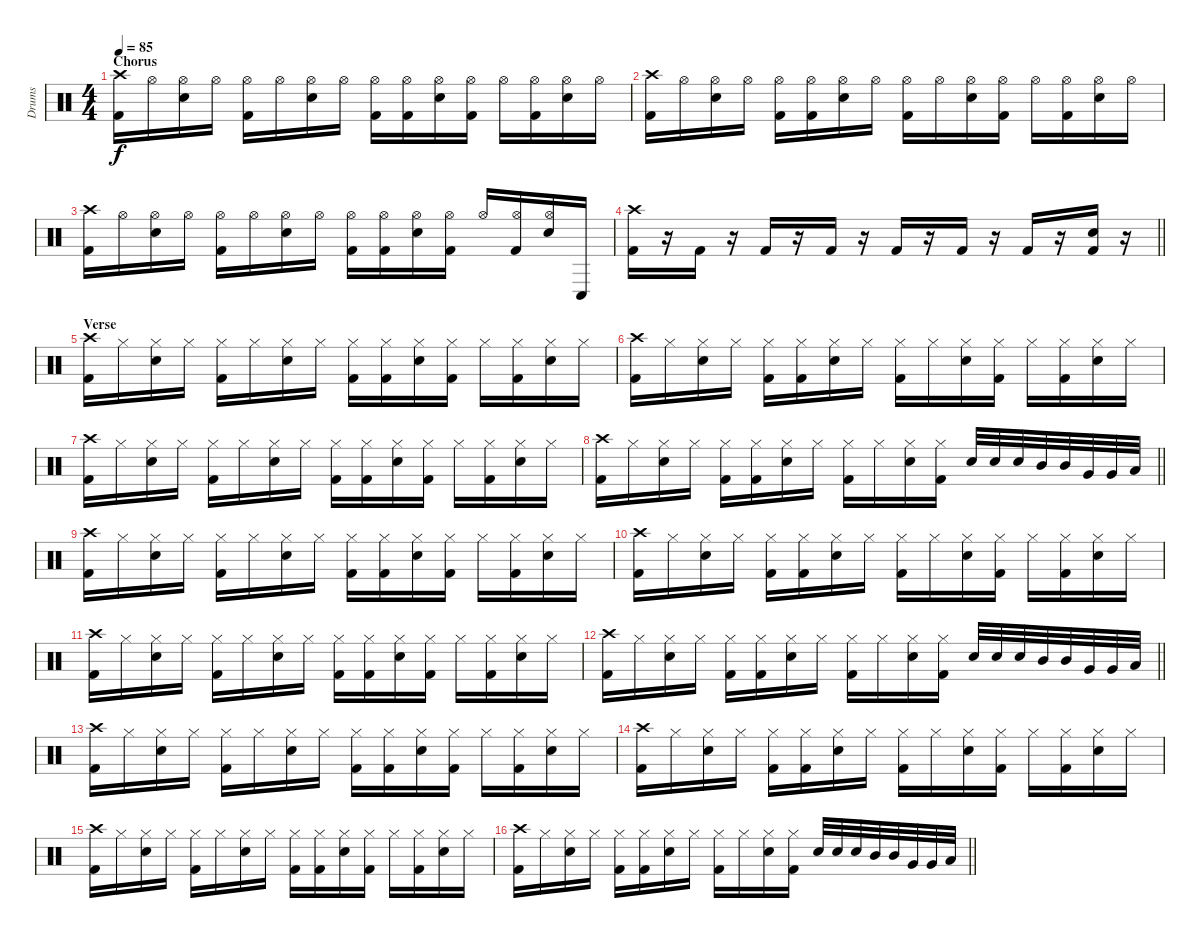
\track ("Drums" "Drums") {instrument percussion}
\staff {score}
\articulation defaults
\ts (4 4)
\section ("" "Chorus")
\tempo 85
\clef neutral
\ks c
("Crash high (hit)" "Kick (hit) 2").16{dy f} "Hi-Hat (open)".16 ("Hi-Hat (open)" "Snare (hit) 2").16 "Hi-Hat (open)".16 ("Hi-Hat (open)" "Kick (hit) 2").16 "Hi-Hat (open)".16 ("Hi-Hat (open)" "Snare (hit) 2").16 "Hi-Hat (open)".16 ("Hi-Hat (open)" "Kick (hit) 2").16 ("Hi-Hat (open)" "Kick (hit) 2").16 ("Hi-Hat (open)" "Snare (hit) 2").16 ("Hi-Hat (open)" "Kick (hit) 2").16 "Hi-Hat (open)".16 ("Hi-Hat (open)" "Kick (hit) 2").16 ("Hi-Hat (open)" "Snare (hit) 2").16 "Hi-Hat (open)".16 |
("Crash high (hit)" "Kick (hit) 2").16 "Hi-Hat (open)".16 ("Hi-Hat (open)" "Snare (hit) 2").16 "Hi-Hat (open)".16 ("Hi-Hat (open)" "Kick (hit) 2").16 ("Hi-Hat (open)" "Kick (hit) 2").16 ("Hi-Hat (open)" "Snare (hit) 2").16 "Hi-Hat (open)".16 ("Hi-Hat (open)" "Kick (hit) 2").16 "Hi-Hat (open)".16 ("Hi-Hat (open)" "Snare (hit) 2").16 ("Hi-Hat (open)" "Kick (hit) 2").16 "Hi-Hat (open)".16 ("Hi-Hat (open)" "Kick (hit) 2").16 ("Hi-Hat (open)" "Snare (hit) 2").16 "Hi-Hat (open)".16 |
("Crash high (hit)" "Kick (hit) 2").16 "Hi-Hat (open)".16 ("Hi-Hat (open)" "Snare (hit) 2").16 "Hi-Hat (open)".16 ("Hi-Hat (open)" "Kick (hit) 2").16 "Hi-Hat (open)".16 ("Hi-Hat (open)" "Snare (hit) 2").16 "Hi-Hat (open)".16 ("Hi-Hat (open)" "Kick (hit) 2").16 ("Hi-Hat (open)" "Kick (hit) 2").16 ("Hi-Hat (open)" "Snare (hit) 2").16 ("Hi-Hat (open)" "Kick (hit) 2").16 "Hi-Hat (open)".16 ("Hi-Hat (open)" "Kick (hit) 2").16 ("Hi-Hat (open)" "Snare (hit) 2").16 "Conga low (hit)".16 |
\barLineRight lightlight
("Crash high (hit)" "Kick (hit) 2").16 r.16 "Kick (hit) 2".16 r.16 "Kick (hit) 2".16 r.16 "Kick (hit) 2".16 r.16 "Kick (hit) 2".16 r.16 "Kick (hit) 2".16 r.16 "Kick (hit) 2".16 r.16 ("Snare (hit) 2" "Kick (hit) 2").16 r.16 |
\section ("" "Verse")
("Crash high (hit)" "Kick (hit) 2").16 "Hi-Hat (closed)".16 ("Hi-Hat (closed)" "Snare (hit) 2").16 "Hi-Hat (closed)".16 ("Hi-Hat (closed)" "Kick (hit) 2").16 "Hi-Hat (closed)".16 ("Hi-Hat (closed)" "Snare (hit) 2").16 "Hi-Hat (closed)".16 ("Hi-Hat (closed)" "Kick (hit) 2").16 ("Hi-Hat (closed)" "Kick (hit) 2").16 ("Hi-Hat (closed)" "Snare (hit) 2").16 ("Hi-Hat (closed)" "Kick (hit) 2").16 "Hi-Hat (closed)".16 ("Hi-Hat (closed)" "Kick (hit) 2").16 ("Hi-Hat (closed)" "Snare (hit) 2").16 "Hi-Hat (closed)".16 |
("Crash high (hit)" "Kick (hit) 2").16 "Hi-Hat (closed)".16 ("Hi-Hat (closed)" "Snare (hit) 2").16 "Hi-Hat (closed)".16 ("Hi-Hat (closed)" "Kick (hit) 2").16 ("Hi-Hat (closed)" "Kick (hit) 2").16 ("Hi-Hat (closed)" "Snare (hit) 2").16 "Hi-Hat (closed)".16 ("Hi-Hat (closed)" "Kick (hit) 2").16 "Hi-Hat (closed)".16 ("Hi-Hat (closed)" "Snare (hit) 2").16 ("Hi-Hat (closed)" "Kick (hit) 2").16 "Hi-Hat (closed)".16 ("Hi-Hat (closed)" "Kick (hit) 2").16 ("Hi-Hat (closed)" "Snare (hit) 2").16 "Hi-Hat (closed)".16 |
("Crash high (hit)" "Kick (hit) 2").16 "Hi-Hat (closed)".16 ("Hi-Hat (closed)" "Snare (hit) 2").16 "Hi-Hat (closed)".16 ("Hi-Hat (closed)" "Kick (hit) 2").16 "Hi-Hat (closed)".16 ("Hi-Hat (closed)" "Snare (hit) 2").16 "Hi-Hat (closed)".16 ("Hi-Hat (closed)" "Kick (hit) 2").16 ("Hi-Hat (closed)" "Kick (hit) 2").16 ("Hi-Hat (closed)" "Snare (hit) 2").16 ("Hi-Hat (closed)" "Kick (hit) 2").16 "Hi-Hat (closed)".16 ("Hi-Hat (closed)" "Kick (hit) 2").16 ("Hi-Hat (closed)" "Snare (hit) 2").16 "Hi-Hat (closed)".16 |
\barLineRight lightlight
("Crash high (hit)" "Kick (hit) 2").16 "Hi-Hat (closed)".16 ("Hi-Hat (closed)" "Snare (hit) 2").16 "Hi-Hat (closed)".16 ("Hi-Hat (closed)" "Kick (hit) 2").16 ("Hi-Hat (closed)" "Kick (hit) 2").16 ("Hi-Hat (closed)" "Snare (hit) 2").16 "Hi-Hat (closed)".16 ("Hi-Hat (closed)" "Kick (hit) 2").16 "Hi-Hat (closed)".16 ("Hi-Hat (closed)" "Snare (hit) 2").16 ("Hi-Hat (closed)" "Kick (hit) 2").16 "Snare (hit) 2".32 "Snare (hit) 2".32 "Snare (hit) 2".32 "Mid Tom (hit)".32 "Mid Tom (hit)".32 "Very Low Tom (hit)".32 "Very Low Tom (hit)".32 "Low Floor Tom (hit)".32 |
("Crash high (hit)" "Kick (hit) 2").16 "Hi-Hat (closed)".16 ("Hi-Hat (closed)" "Snare (hit) 2").16 "Hi-Hat (closed)".16 ("Hi-Hat (closed)" "Kick (hit) 2").16 "Hi-Hat (closed)".16 ("Hi-Hat (closed)" "Snare (hit) 2").16 "Hi-Hat (closed)".16 ("Hi-Hat (closed)" "Kick (hit) 2").16 ("Hi-Hat (closed)" "Kick (hit) 2").16 ("Hi-Hat (closed)" "Snare (hit) 2").16 ("Hi-Hat (closed)" "Kick (hit) 2").16 "Hi-Hat (closed)".16 ("Hi-Hat (closed)" "Kick (hit) 2").16 ("Hi-Hat (closed)" "Snare (hit) 2").16 "Hi-Hat (closed)".16 |
("Crash high (hit)" "Kick (hit) 2").16 "Hi-Hat (closed)".16 ("Hi-Hat (closed)" "Snare (hit) 2").16 "Hi-Hat (closed)".16 ("Hi-Hat (closed)" "Kick (hit) 2").16 ("Hi-Hat (closed)" "Kick (hit) 2").16 ("Hi-Hat (closed)" "Snare (hit) 2").16 "Hi-Hat (closed)".16 ("Hi-Hat (closed)" "Kick (hit) 2").16 "Hi-Hat (closed)".16 ("Hi-Hat (closed)" "Snare (hit) 2").16 ("Hi-Hat (closed)" "Kick (hit) 2").16 "Hi-Hat (closed)".16 ("Hi-Hat (closed)" "Kick (hit) 2").16 ("Hi-Hat (closed)" "Snare (hit) 2").16 "Hi-Hat (closed)".16 |
("Crash high (hit)" "Kick (hit) 2").16 "Hi-Hat (closed)".16 ("Hi-Hat (closed)" "Snare (hit) 2").16 "Hi-Hat (closed)".16 ("Hi-Hat (closed)" "Kick (hit) 2").16 "Hi-Hat (closed)".16 ("Hi-Hat (closed)" "Snare (hit) 2").16 "Hi-Hat (closed)".16 ("Hi-Hat (closed)" "Kick (hit) 2").16 ("Hi-Hat (closed)" "Kick (hit) 2").16 ("Hi-Hat (closed)" "Snare (hit) 2").16 ("Hi-Hat (closed)" "Kick (hit) 2").16 "Hi-Hat (closed)".16 ("Hi-Hat (closed)" "Kick (hit) 2").16 ("Hi-Hat (closed)" "Snare (hit) 2").16 "Hi-Hat (closed)".16 |
\barLineRight lightlight
("Crash high (hit)" "Kick (hit) 2").16 "Hi-Hat (closed)".16 ("Hi-Hat (closed)" "Snare (hit) 2").16 "Hi-Hat (closed)".16 ("Hi-Hat (closed)" "Kick (hit) 2").16 ("Hi-Hat (closed)" "Kick (hit) 2").16 ("Hi-Hat (closed)" "Snare (hit) 2").16 "Hi-Hat (closed)".16 ("Hi-Hat (closed)" "Kick (hit) 2").16 "Hi-Hat (closed)".16 ("Hi-Hat (closed)" "Snare (hit) 2").16 ("Hi-Hat (closed)" "Kick (hit) 2").16 "Snare (hit) 2".32 "Snare (hit) 2".32 "Snare (hit) 2".32 "Mid Tom (hit)".32 "Mid Tom (hit)".32 "Very Low Tom (hit)".32 "Very Low Tom (hit)".32 "Low Floor Tom (hit)".32 |
("Crash high (hit)" "Kick (hit) 2").16 "Hi-Hat (closed)".16 ("Hi-Hat (closed)" "Snare (hit) 2").16 "Hi-Hat (closed)".16 ("Hi-Hat (closed)" "Kick (hit) 2").16 "Hi-Hat (closed)".16 ("Hi-Hat (closed)" "Snare (hit) 2").16 "Hi-Hat (closed)".16 ("Hi-Hat (closed)" "Kick (hit) 2").16 ("Hi-Hat (closed)" "Kick (hit) 2").16 ("Hi-Hat (closed)" "Snare (hit) 2").16 ("Hi-Hat (closed)" "Kick (hit) 2").16 "Hi-Hat (closed)".16 ("Hi-Hat (closed)" "Kick (hit) 2").16 ("Hi-Hat (closed)" "Snare (hit) 2").16 "Hi-Hat (closed)".16 |
("Crash high (hit)" "Kick (hit) 2").16 "Hi-Hat (closed)".16 ("Hi-Hat (closed)" "Snare (hit) 2").16 "Hi-Hat (closed)".16 ("Hi-Hat (closed)" "Kick (hit) 2").16 ("Hi-Hat (closed)" "Kick (hit) 2").16 ("Hi-Hat (closed)" "Snare (hit) 2").16 "Hi-Hat (closed)".16 ("Hi-Hat (closed)" "Kick (hit) 2").16 "Hi-Hat (closed)".16 ("Hi-Hat (closed)" "Snare (hit) 2").16 ("Hi-Hat (closed)" "Kick (hit) 2").16 "Hi-Hat (closed)".16 ("Hi-Hat (closed)" "Kick (hit) 2").16 ("Hi-Hat (closed)" "Snare (hit) 2").16 "Hi-Hat (closed)".16 |
("Crash high (hit)" "Kick (hit) 2").16 "Hi-Hat (closed)".16 ("Hi-Hat (closed)" "Snare (hit) 2").16 "Hi-Hat (closed)".16 ("Hi-Hat (closed)" "Kick (hit) 2").16 "Hi-Hat (closed)".16 ("Hi-Hat (closed)" "Snare (hit) 2").16 "Hi-Hat (closed)".16 ("Hi-Hat (closed)" "Kick (hit) 2").16 ("Hi-Hat (closed)" "Kick (hit) 2").16 ("Hi-Hat (closed)" "Snare (hit) 2").16 ("Hi-Hat (closed)" "Kick (hit) 2").16 "Hi-Hat (closed)".16 ("Hi-Hat (closed)" "Kick (hit) 2").16 ("Hi-Hat (closed)" "Snare (hit) 2").16 "Hi-Hat (closed)".16 |
\barLineRight lightlight
("Crash high (hit)" "Kick (hit) 2").16 "Hi-Hat (closed)".16 ("Hi-Hat (closed)" "Snare (hit) 2").16 "Hi-Hat (closed)".16 ("Hi-Hat (closed)" "Kick (hit) 2").16 ("Hi-Hat (closed)" "Kick (hit) 2").16 ("Hi-Hat (closed)" "Snare (hit) 2").16 "Hi-Hat (closed)".16 ("Hi-Hat (closed)" "Kick (hit) 2").16 "Hi-Hat (closed)".16 ("Hi-Hat (closed)" "Snare (hit) 2").16 ("Hi-Hat (closed)" "Kick (hit) 2").16 "Snare (hit) 2".32 "Snare (hit) 2".32 "Snare (hit) 2".32 "Mid Tom (hit)".32 "Mid Tom (hit)".32 "Very Low Tom (hit)".32 "Very Low Tom (hit)".32 "Low Floor Tom (hit)".32
